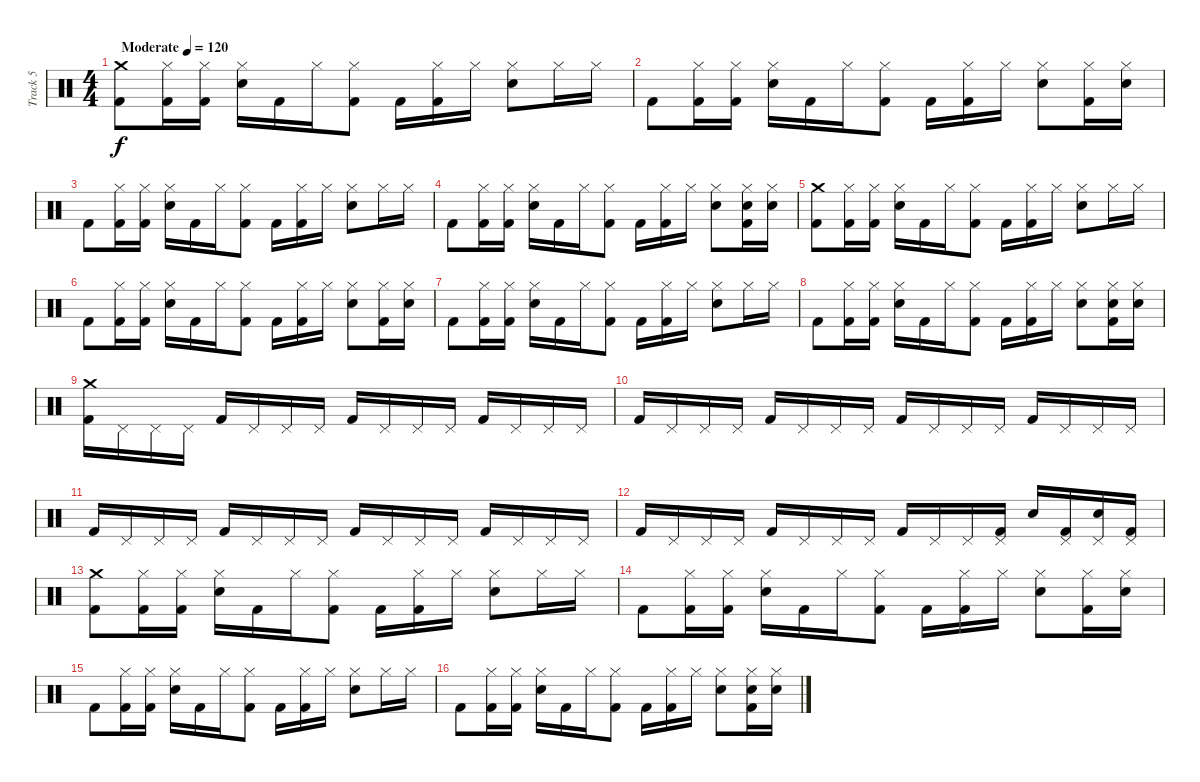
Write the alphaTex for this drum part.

\track ("Track 5" "Track 5") {instrument percussion}
\staff {score}
\articulation defaults
\ts (4 4)
\tempo (120 "Moderate")
\clef neutral
\ks c
("Crash medium (hit)" "Kick (hit) 2").8{dy f} ("Hi-Hat (closed)" "Kick (hit) 2").16 ("Hi-Hat (closed)" "Kick (hit) 2").16 ("Hi-Hat (closed)" "Snare (hit) 2").16 "Kick (hit) 2".16 "Hi-Hat (closed)".16 ("Hi-Hat (closed)" "Kick (hit) 2").8 "Kick (hit) 2".16 ("Hi-Hat (closed)" "Kick (hit) 2").16 "Hi-Hat (closed)".16 ("Hi-Hat (closed)" "Snare (hit) 2").8 "Hi-Hat (closed)".16 "Hi-Hat (closed)".16 |
"Kick (hit) 2".8 ("Hi-Hat (closed)" "Kick (hit) 2").16 ("Hi-Hat (closed)" "Kick (hit) 2").16 ("Hi-Hat (closed)" "Snare (hit) 2").16 "Kick (hit) 2".16 "Hi-Hat (closed)".16 ("Hi-Hat (closed)" "Kick (hit) 2").8 "Kick (hit) 2".16 ("Hi-Hat (closed)" "Kick (hit) 2").16 "Hi-Hat (closed)".16 ("Hi-Hat (closed)" "Snare (hit) 2").8 ("Hi-Hat (closed)" "Kick (hit) 2").16 ("Hi-Hat (closed)" "Snare (hit) 2").16 |
"Kick (hit) 2".8 ("Hi-Hat (closed)" "Kick (hit) 2").16 ("Hi-Hat (closed)" "Kick (hit) 2").16 ("Hi-Hat (closed)" "Snare (hit) 2").16 "Kick (hit) 2".16 "Hi-Hat (closed)".16 ("Hi-Hat (closed)" "Kick (hit) 2").8 "Kick (hit) 2".16 ("Hi-Hat (closed)" "Kick (hit) 2").16 "Hi-Hat (closed)".16 ("Hi-Hat (closed)" "Snare (hit) 2").8 "Hi-Hat (closed)".16 "Hi-Hat (closed)".16 |
"Kick (hit) 2".8 ("Hi-Hat (closed)" "Kick (hit) 2").16 ("Hi-Hat (closed)" "Kick (hit) 2").16 ("Hi-Hat (closed)" "Snare (hit) 2").16 "Kick (hit) 2".16 "Hi-Hat (closed)".16 ("Hi-Hat (closed)" "Kick (hit) 2").8 "Kick (hit) 2".16 ("Hi-Hat (closed)" "Kick (hit) 2").16 "Hi-Hat (closed)".16 ("Hi-Hat (closed)" "Snare (hit) 2").8 ("Hi-Hat (closed)" "Snare (hit) 2" "Kick (hit) 2").16 ("Hi-Hat (closed)" "Snare (hit) 2").16 |
("Crash medium (hit)" "Kick (hit) 2").8 ("Hi-Hat (closed)" "Kick (hit) 2").16 ("Hi-Hat (closed)" "Kick (hit) 2").16 ("Hi-Hat (closed)" "Snare (hit) 2").16 "Kick (hit) 2".16 "Hi-Hat (closed)".16 ("Hi-Hat (closed)" "Kick (hit) 2").8 "Kick (hit) 2".16 ("Hi-Hat (closed)" "Kick (hit) 2").16 "Hi-Hat (closed)".16 ("Hi-Hat (closed)" "Snare (hit) 2").8 "Hi-Hat (closed)".16 "Hi-Hat (closed)".16 |
"Kick (hit) 2".8 ("Hi-Hat (closed)" "Kick (hit) 2").16 ("Hi-Hat (closed)" "Kick (hit) 2").16 ("Hi-Hat (closed)" "Snare (hit) 2").16 "Kick (hit) 2".16 "Hi-Hat (closed)".16 ("Hi-Hat (closed)" "Kick (hit) 2").8 "Kick (hit) 2".16 ("Hi-Hat (closed)" "Kick (hit) 2").16 "Hi-Hat (closed)".16 ("Hi-Hat (closed)" "Snare (hit) 2").8 ("Hi-Hat (closed)" "Kick (hit) 2").16 ("Hi-Hat (closed)" "Snare (hit) 2").16 |
"Kick (hit) 2".8 ("Hi-Hat (closed)" "Kick (hit) 2").16 ("Hi-Hat (closed)" "Kick (hit) 2").16 ("Hi-Hat (closed)" "Snare (hit) 2").16 "Kick (hit) 2".16 "Hi-Hat (closed)".16 ("Hi-Hat (closed)" "Kick (hit) 2").8 "Kick (hit) 2".16 ("Hi-Hat (closed)" "Kick (hit) 2").16 "Hi-Hat (closed)".16 ("Hi-Hat (closed)" "Snare (hit) 2").8 "Hi-Hat (closed)".16 "Hi-Hat (closed)".16 |
"Kick (hit) 2".8 ("Hi-Hat (closed)" "Kick (hit) 2").16 ("Hi-Hat (closed)" "Kick (hit) 2").16 ("Hi-Hat (closed)" "Snare (hit) 2").16 "Kick (hit) 2".16 "Hi-Hat (closed)".16 ("Hi-Hat (closed)" "Kick (hit) 2").8 "Kick (hit) 2".16 ("Hi-Hat (closed)" "Kick (hit) 2").16 "Hi-Hat (closed)".16 ("Hi-Hat (closed)" "Snare (hit) 2").8 ("Hi-Hat (closed)" "Snare (hit) 2" "Kick (hit) 2").16 ("Hi-Hat (closed)" "Snare (hit) 2").16 |
("Crash medium (hit)" "Kick (hit) 2").16 "Pedal Hi-Hat (hit)".16 "Pedal Hi-Hat (hit)".16 "Pedal Hi-Hat (hit)".16 "Kick (hit) 2".16 "Pedal Hi-Hat (hit)".16 "Pedal Hi-Hat (hit)".16 "Pedal Hi-Hat (hit)".16 "Kick (hit) 2".16 "Pedal Hi-Hat (hit)".16 "Pedal Hi-Hat (hit)".16 "Pedal Hi-Hat (hit)".16 "Kick (hit) 2".16 "Pedal Hi-Hat (hit)".16 "Pedal Hi-Hat (hit)".16 "Pedal Hi-Hat (hit)".16 |
"Kick (hit) 2".16 "Pedal Hi-Hat (hit)".16 "Pedal Hi-Hat (hit)".16 "Pedal Hi-Hat (hit)".16 "Kick (hit) 2".16 "Pedal Hi-Hat (hit)".16 "Pedal Hi-Hat (hit)".16 "Pedal Hi-Hat (hit)".16 "Kick (hit) 2".16 "Pedal Hi-Hat (hit)".16 "Pedal Hi-Hat (hit)".16 "Pedal Hi-Hat (hit)".16 "Kick (hit) 2".16 "Pedal Hi-Hat (hit)".16 "Pedal Hi-Hat (hit)".16 "Pedal Hi-Hat (hit)".16 |
"Kick (hit) 2".16 "Pedal Hi-Hat (hit)".16 "Pedal Hi-Hat (hit)".16 "Pedal Hi-Hat (hit)".16 "Kick (hit) 2".16 "Pedal Hi-Hat (hit)".16 "Pedal Hi-Hat (hit)".16 "Pedal Hi-Hat (hit)".16 "Kick (hit) 2".16 "Pedal Hi-Hat (hit)".16 "Pedal Hi-Hat (hit)".16 "Pedal Hi-Hat (hit)".16 "Kick (hit) 2".16 "Pedal Hi-Hat (hit)".16 "Pedal Hi-Hat (hit)".16 "Pedal Hi-Hat (hit)".16 |
"Kick (hit) 2".16 "Pedal Hi-Hat (hit)".16 "Pedal Hi-Hat (hit)".16 "Pedal Hi-Hat (hit)".16 "Kick (hit) 2".16 "Pedal Hi-Hat (hit)".16 "Pedal Hi-Hat (hit)".16 "Pedal Hi-Hat (hit)".16 "Kick (hit) 2".16 "Pedal Hi-Hat (hit)".16 "Pedal Hi-Hat (hit)".16 ("Pedal Hi-Hat (hit)" "Kick (hit) 2").16 "Snare (hit) 2".16 ("Pedal Hi-Hat (hit)" "Kick (hit) 2").16 ("Pedal Hi-Hat (hit)" "Snare (hit) 2").16 ("Pedal Hi-Hat (hit)" "Kick (hit) 2").16 |
("Crash medium (hit)" "Kick (hit) 2").8 ("Hi-Hat (closed)" "Kick (hit) 2").16 ("Hi-Hat (closed)" "Kick (hit) 2").16 ("Hi-Hat (closed)" "Snare (hit) 2").16 "Kick (hit) 2".16 "Hi-Hat (closed)".16 ("Hi-Hat (closed)" "Kick (hit) 2").8 "Kick (hit) 2".16 ("Hi-Hat (closed)" "Kick (hit) 2").16 "Hi-Hat (closed)".16 ("Hi-Hat (closed)" "Snare (hit) 2").8 "Hi-Hat (closed)".16 "Hi-Hat (closed)".16 |
"Kick (hit) 2".8 ("Hi-Hat (closed)" "Kick (hit) 2").16 ("Hi-Hat (closed)" "Kick (hit) 2").16 ("Hi-Hat (closed)" "Snare (hit) 2").16 "Kick (hit) 2".16 "Hi-Hat (closed)".16 ("Hi-Hat (closed)" "Kick (hit) 2").8 "Kick (hit) 2".16 ("Hi-Hat (closed)" "Kick (hit) 2").16 "Hi-Hat (closed)".16 ("Hi-Hat (closed)" "Snare (hit) 2").8 ("Hi-Hat (closed)" "Kick (hit) 2").16 ("Hi-Hat (closed)" "Snare (hit) 2").16 |
"Kick (hit) 2".8 ("Hi-Hat (closed)" "Kick (hit) 2").16 ("Hi-Hat (closed)" "Kick (hit) 2").16 ("Hi-Hat (closed)" "Snare (hit) 2").16 "Kick (hit) 2".16 "Hi-Hat (closed)".16 ("Hi-Hat (closed)" "Kick (hit) 2").8 "Kick (hit) 2".16 ("Hi-Hat (closed)" "Kick (hit) 2").16 "Hi-Hat (closed)".16 ("Hi-Hat (closed)" "Snare (hit) 2").8 "Hi-Hat (closed)".16 "Hi-Hat (closed)".16 |
"Kick (hit) 2".8 ("Hi-Hat (closed)" "Kick (hit) 2").16 ("Hi-Hat (closed)" "Kick (hit) 2").16 ("Hi-Hat (closed)" "Snare (hit) 2").16 "Kick (hit) 2".16 "Hi-Hat (closed)".16 ("Hi-Hat (closed)" "Kick (hit) 2").8 "Kick (hit) 2".16 ("Hi-Hat (closed)" "Kick (hit) 2").16 "Hi-Hat (closed)".16 ("Hi-Hat (closed)" "Snare (hit) 2").8 ("Hi-Hat (closed)" "Snare (hit) 2" "Kick (hit) 2").16 ("Hi-Hat (closed)" "Snare (hit) 2").16
